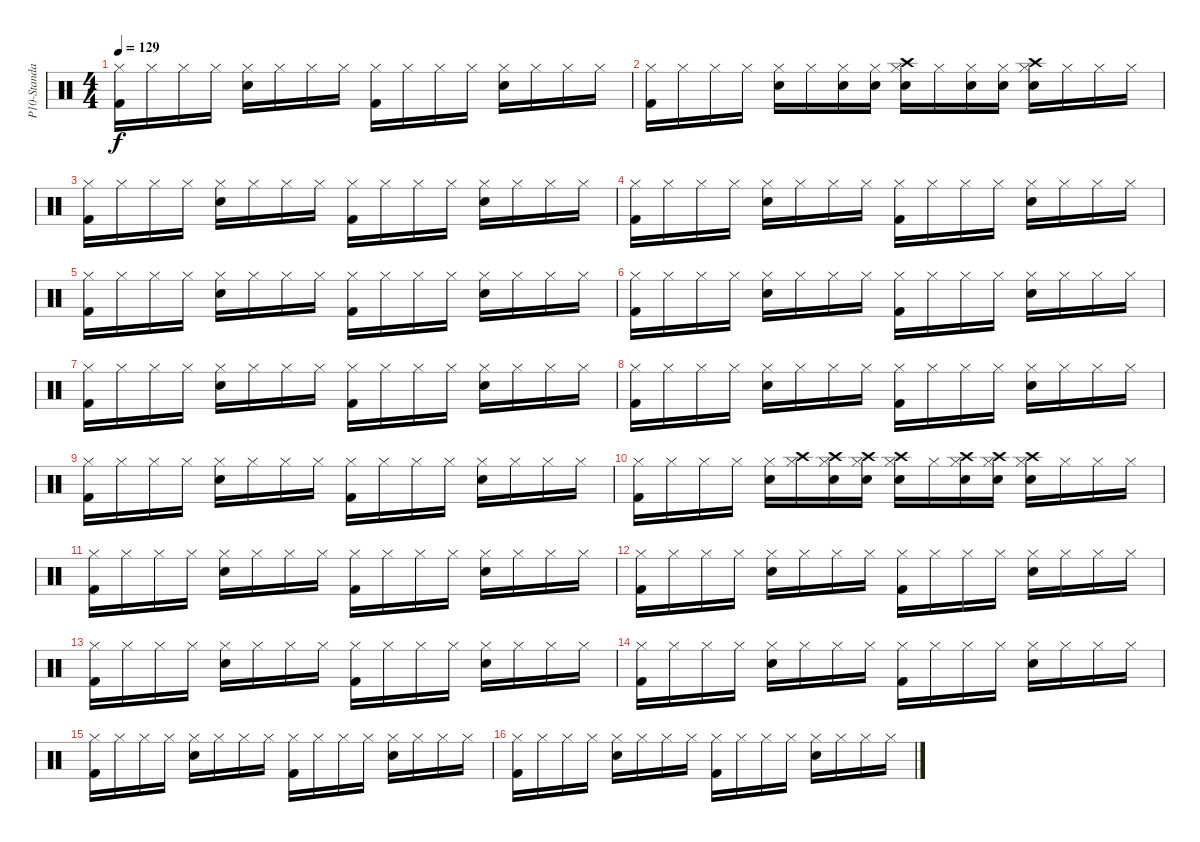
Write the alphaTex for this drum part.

\track ("P10-Standard Kit 2" "P10-Standa") {instrument percussion}
\staff {score}
\articulation defaults
\ts (4 4)
\tempo 129
\clef neutral
\ks c
("Kick (hit) 2" "Hi-Hat (closed)").16{dy f} "Hi-Hat (closed)".16 "Hi-Hat (closed)".16 "Hi-Hat (closed)".16 ("Snare (hit) 2" "Hi-Hat (closed)").16 "Hi-Hat (closed)".16 "Hi-Hat (closed)".16 "Hi-Hat (closed)".16 ("Hi-Hat (closed)" "Kick (hit) 2").16 "Hi-Hat (closed)".16 "Hi-Hat (closed)".16 "Hi-Hat (closed)".16 ("Snare (hit) 2" "Hi-Hat (closed)").16 "Hi-Hat (closed)".16 "Hi-Hat (closed)".16 "Hi-Hat (closed)".16 |
("Kick (hit) 2" "Hi-Hat (closed)").16 "Hi-Hat (closed)".16 "Hi-Hat (closed)".16 "Hi-Hat (closed)".16 ("Hi-Hat (closed)" "Snare (hit) 2").16 "Hi-Hat (closed)".16 ("Hi-Hat (closed)" "Snare (hit) 2").16 ("Hi-Hat (closed)" "Snare (hit) 2").16 ("Hi-Hat (closed)" "Snare (hit) 2" "Crash high (hit)").16 "Hi-Hat (closed)".16 ("Snare (hit) 2" "Hi-Hat (closed)").16 ("Hi-Hat (closed)" "Snare (hit) 2").16 ("Crash high (hit)" "Hi-Hat (closed)" "Snare (hit) 2").16 "Hi-Hat (closed)".16 "Hi-Hat (closed)".16 "Hi-Hat (closed)".16 |
("Kick (hit) 2" "Hi-Hat (closed)").16 "Hi-Hat (closed)".16 "Hi-Hat (closed)".16 "Hi-Hat (closed)".16 ("Snare (hit) 2" "Hi-Hat (closed)").16 "Hi-Hat (closed)".16 "Hi-Hat (closed)".16 "Hi-Hat (closed)".16 ("Hi-Hat (closed)" "Kick (hit) 2").16 "Hi-Hat (closed)".16 "Hi-Hat (closed)".16 "Hi-Hat (closed)".16 ("Snare (hit) 2" "Hi-Hat (closed)").16 "Hi-Hat (closed)".16 "Hi-Hat (closed)".16 "Hi-Hat (closed)".16 |
("Hi-Hat (closed)" "Kick (hit) 2").16 "Hi-Hat (closed)".16 "Hi-Hat (closed)".16 "Hi-Hat (closed)".16 ("Snare (hit) 2" "Hi-Hat (closed)").16 "Hi-Hat (closed)".16 "Hi-Hat (closed)".16 "Hi-Hat (closed)".16 ("Kick (hit) 2" "Hi-Hat (closed)").16 "Hi-Hat (closed)".16 "Hi-Hat (closed)".16 "Hi-Hat (closed)".16 ("Hi-Hat (closed)" "Snare (hit) 2").16 "Hi-Hat (closed)".16 "Hi-Hat (closed)".16 "Hi-Hat (closed)".16 |
("Kick (hit) 2" "Hi-Hat (closed)").16 "Hi-Hat (closed)".16 "Hi-Hat (closed)".16 "Hi-Hat (closed)".16 ("Hi-Hat (closed)" "Snare (hit) 2").16 "Hi-Hat (closed)".16 "Hi-Hat (closed)".16 "Hi-Hat (closed)".16 ("Kick (hit) 2" "Hi-Hat (closed)").16 "Hi-Hat (closed)".16 "Hi-Hat (closed)".16 "Hi-Hat (closed)".16 ("Snare (hit) 2" "Hi-Hat (closed)").16 "Hi-Hat (closed)".16 "Hi-Hat (closed)".16 "Hi-Hat (closed)".16 |
("Hi-Hat (closed)" "Kick (hit) 2").16 "Hi-Hat (closed)".16 "Hi-Hat (closed)".16 "Hi-Hat (closed)".16 ("Snare (hit) 2" "Hi-Hat (closed)").16 "Hi-Hat (closed)".16 "Hi-Hat (closed)".16 "Hi-Hat (closed)".16 ("Hi-Hat (closed)" "Kick (hit) 2").16 "Hi-Hat (closed)".16 "Hi-Hat (closed)".16 "Hi-Hat (closed)".16 ("Snare (hit) 2" "Hi-Hat (closed)").16 "Hi-Hat (closed)".16 "Hi-Hat (closed)".16 "Hi-Hat (closed)".16 |
("Kick (hit) 2" "Hi-Hat (closed)").16 "Hi-Hat (closed)".16 "Hi-Hat (closed)".16 "Hi-Hat (closed)".16 ("Hi-Hat (closed)" "Snare (hit) 2").16 "Hi-Hat (closed)".16 "Hi-Hat (closed)".16 "Hi-Hat (closed)".16 ("Kick (hit) 2" "Hi-Hat (closed)").16 "Hi-Hat (closed)".16 "Hi-Hat (closed)".16 "Hi-Hat (closed)".16 ("Snare (hit) 2" "Hi-Hat (closed)").16 "Hi-Hat (closed)".16 "Hi-Hat (closed)".16 "Hi-Hat (closed)".16 |
("Kick (hit) 2" "Hi-Hat (closed)").16 "Hi-Hat (closed)".16 "Hi-Hat (closed)".16 "Hi-Hat (closed)".16 ("Hi-Hat (closed)" "Snare (hit) 2").16 "Hi-Hat (closed)".16 "Hi-Hat (closed)".16 "Hi-Hat (closed)".16 ("Kick (hit) 2" "Hi-Hat (closed)").16 "Hi-Hat (closed)".16 "Hi-Hat (closed)".16 "Hi-Hat (closed)".16 ("Snare (hit) 2" "Hi-Hat (closed)").16 "Hi-Hat (closed)".16 "Hi-Hat (closed)".16 "Hi-Hat (closed)".16 |
("Kick (hit) 2" "Hi-Hat (closed)").16 "Hi-Hat (closed)".16 "Hi-Hat (closed)".16 "Hi-Hat (closed)".16 ("Snare (hit) 2" "Hi-Hat (closed)").16 "Hi-Hat (closed)".16 "Hi-Hat (closed)".16 "Hi-Hat (closed)".16 ("Hi-Hat (closed)" "Kick (hit) 2").16 "Hi-Hat (closed)".16 "Hi-Hat (closed)".16 "Hi-Hat (closed)".16 ("Snare (hit) 2" "Hi-Hat (closed)").16 "Hi-Hat (closed)".16 "Hi-Hat (closed)".16 "Hi-Hat (closed)".16 |
("Hi-Hat (closed)" "Kick (hit) 2").16 "Hi-Hat (closed)".16 "Hi-Hat (closed)".16 "Hi-Hat (closed)".16 ("Hi-Hat (closed)" "Snare (hit) 2").16 ("Hi-Hat (closed)" "Crash high (hit)").16 ("Snare (hit) 2" "Hi-Hat (closed)" "Crash high (hit)").16 ("Crash high (hit)" "Snare (hit) 2" "Hi-Hat (closed)").16 ("Crash high (hit)" "Snare (hit) 2" "Hi-Hat (closed)").16 "Hi-Hat (closed)".16 ("Snare (hit) 2" "Hi-Hat (closed)" "Crash high (hit)").16 ("Snare (hit) 2" "Hi-Hat (closed)" "Crash high (hit)").16 ("Crash high (hit)" "Snare (hit) 2" "Hi-Hat (closed)").16 "Hi-Hat (closed)".16 "Hi-Hat (closed)".16 "Hi-Hat (closed)".16 |
("Kick (hit) 2" "Hi-Hat (closed)").16 "Hi-Hat (closed)".16 "Hi-Hat (closed)".16 "Hi-Hat (closed)".16 ("Snare (hit) 2" "Hi-Hat (closed)").16 "Hi-Hat (closed)".16 "Hi-Hat (closed)".16 "Hi-Hat (closed)".16 ("Kick (hit) 2" "Hi-Hat (closed)").16 "Hi-Hat (closed)".16 "Hi-Hat (closed)".16 "Hi-Hat (closed)".16 ("Snare (hit) 2" "Hi-Hat (closed)").16 "Hi-Hat (closed)".16 "Hi-Hat (closed)".16 "Hi-Hat (closed)".16 |
("Kick (hit) 2" "Hi-Hat (closed)").16 "Hi-Hat (closed)".16 "Hi-Hat (closed)".16 "Hi-Hat (closed)".16 ("Snare (hit) 2" "Hi-Hat (closed)").16 "Hi-Hat (closed)".16 "Hi-Hat (closed)".16 "Hi-Hat (closed)".16 ("Kick (hit) 2" "Hi-Hat (closed)").16 "Hi-Hat (closed)".16 "Hi-Hat (closed)".16 "Hi-Hat (closed)".16 ("Snare (hit) 2" "Hi-Hat (closed)").16 "Hi-Hat (closed)".16 "Hi-Hat (closed)".16 "Hi-Hat (closed)".16 |
("Kick (hit) 2" "Hi-Hat (closed)").16 "Hi-Hat (closed)".16 "Hi-Hat (closed)".16 "Hi-Hat (closed)".16 ("Snare (hit) 2" "Hi-Hat (closed)").16 "Hi-Hat (closed)".16 "Hi-Hat (closed)".16 "Hi-Hat (closed)".16 ("Kick (hit) 2" "Hi-Hat (closed)").16 "Hi-Hat (closed)".16 "Hi-Hat (closed)".16 "Hi-Hat (closed)".16 ("Snare (hit) 2" "Hi-Hat (closed)").16 "Hi-Hat (closed)".16 "Hi-Hat (closed)".16 "Hi-Hat (closed)".16 |
("Kick (hit) 2" "Hi-Hat (closed)").16 "Hi-Hat (closed)".16 "Hi-Hat (closed)".16 "Hi-Hat (closed)".16 ("Snare (hit) 2" "Hi-Hat (closed)").16 "Hi-Hat (closed)".16 "Hi-Hat (closed)".16 "Hi-Hat (closed)".16 ("Kick (hit) 2" "Hi-Hat (closed)").16 "Hi-Hat (closed)".16 "Hi-Hat (closed)".16 "Hi-Hat (closed)".16 ("Snare (hit) 2" "Hi-Hat (closed)").16 "Hi-Hat (closed)".16 "Hi-Hat (closed)".16 "Hi-Hat (closed)".16 |
("Kick (hit) 2" "Hi-Hat (closed)").16 "Hi-Hat (closed)".16 "Hi-Hat (closed)".16 "Hi-Hat (closed)".16 ("Snare (hit) 2" "Hi-Hat (closed)").16 "Hi-Hat (closed)".16 "Hi-Hat (closed)".16 "Hi-Hat (closed)".16 ("Kick (hit) 2" "Hi-Hat (closed)").16 "Hi-Hat (closed)".16 "Hi-Hat (closed)".16 "Hi-Hat (closed)".16 ("Snare (hit) 2" "Hi-Hat (closed)").16 "Hi-Hat (closed)".16 "Hi-Hat (closed)".16 "Hi-Hat (closed)".16 |
("Kick (hit) 2" "Hi-Hat (closed)").16 "Hi-Hat (closed)".16 "Hi-Hat (closed)".16 "Hi-Hat (closed)".16 ("Snare (hit) 2" "Hi-Hat (closed)").16 "Hi-Hat (closed)".16 "Hi-Hat (closed)".16 "Hi-Hat (closed)".16 ("Kick (hit) 2" "Hi-Hat (closed)").16 "Hi-Hat (closed)".16 "Hi-Hat (closed)".16 "Hi-Hat (closed)".16 ("Snare (hit) 2" "Hi-Hat (closed)").16 "Hi-Hat (closed)".16 "Hi-Hat (closed)".16 "Hi-Hat (closed)".16
